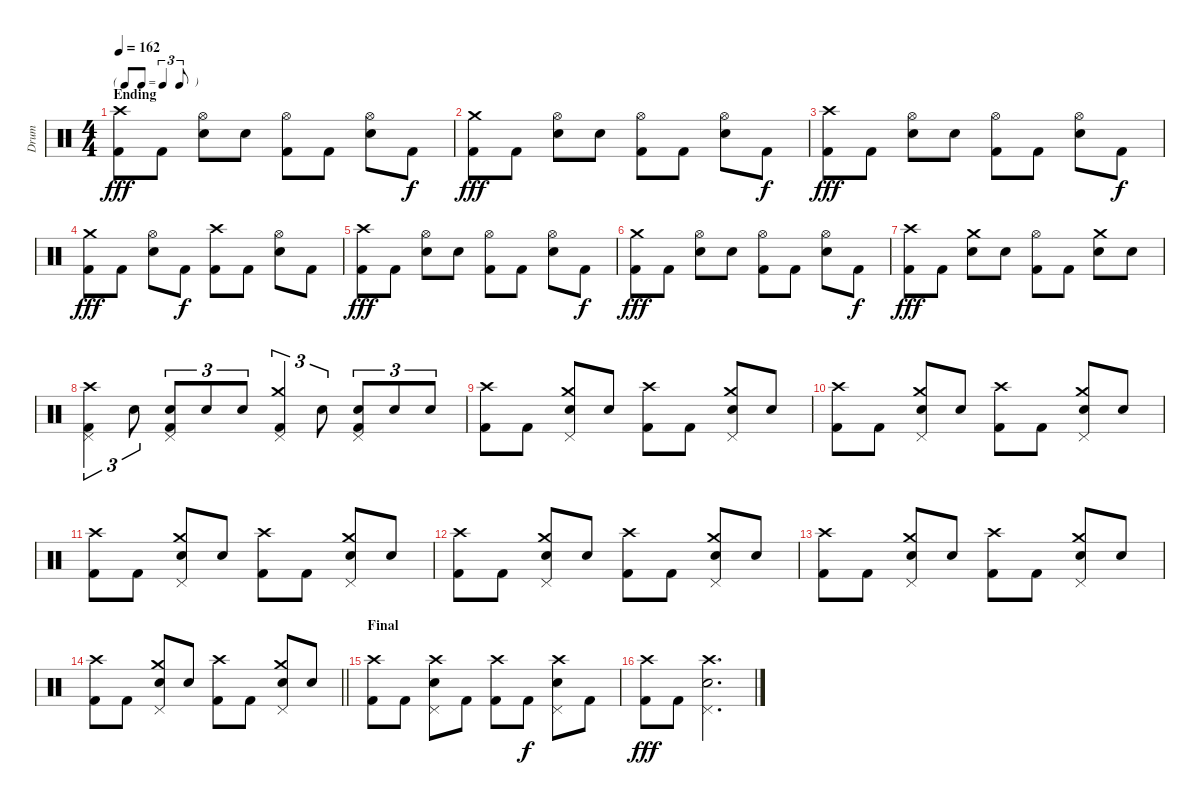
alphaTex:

\track ("Drum" "Drum") {instrument percussion}
\staff {score}
\articulation defaults
\ts (4 4)
\tf triplet8th
\section ("" "Ending")
\tempo 162
\clef neutral
\ks c
("Crash high (hit)" "Kick (hit) 2").8{dy fff} "Kick (hit) 2".8 ("Hi-Hat (open)" "Snare (hit) 2").8 "Snare (hit) 2".8 ("Hi-Hat (open)" "Kick (hit) 2").8 "Kick (hit) 2".8 ("Hi-Hat (open)" "Snare (hit) 2").8 "Kick (hit) 2".8{dy f} |
("Crash medium (hit)" "Kick (hit) 2").8{dy fff} "Kick (hit) 2".8 ("Hi-Hat (open)" "Snare (hit) 2").8 "Snare (hit) 2".8 ("Hi-Hat (open)" "Kick (hit) 2").8 "Kick (hit) 2".8 ("Hi-Hat (open)" "Snare (hit) 2").8 "Kick (hit) 2".8{dy f} |
("Crash high (hit)" "Kick (hit) 2").8{dy fff} "Kick (hit) 2".8 ("Hi-Hat (open)" "Snare (hit) 2").8 "Snare (hit) 2".8 ("Hi-Hat (open)" "Kick (hit) 2").8 "Kick (hit) 2".8 ("Hi-Hat (open)" "Snare (hit) 2").8 "Kick (hit) 2".8{dy f} |
("Crash medium (hit)" "Kick (hit) 2").8{dy fff} "Kick (hit) 2".8 ("Hi-Hat (open)" "Snare (hit) 2").8 "Kick (hit) 2".8{dy f} ("Crash high (hit)" "Kick (hit) 2").8 "Kick (hit) 2".8 ("Hi-Hat (open)" "Snare (hit) 2").8 "Kick (hit) 2".8 |
("Crash high (hit)" "Kick (hit) 2").8{dy fff} "Kick (hit) 2".8 ("Hi-Hat (open)" "Snare (hit) 2").8 "Snare (hit) 2".8 ("Hi-Hat (open)" "Kick (hit) 2").8 "Kick (hit) 2".8 ("Hi-Hat (open)" "Snare (hit) 2").8 "Kick (hit) 2".8{dy f} |
("Crash medium (hit)" "Kick (hit) 2").8{dy fff} "Kick (hit) 2".8 ("Hi-Hat (open)" "Snare (hit) 2").8 "Snare (hit) 2".8 ("Hi-Hat (open)" "Kick (hit) 2").8 "Kick (hit) 2".8 ("Hi-Hat (open)" "Snare (hit) 2").8 "Kick (hit) 2".8{dy f} |
("Crash high (hit)" "Kick (hit) 2").8{dy fff} "Kick (hit) 2".8 ("Crash medium (hit)" "Snare (hit) 2").8 "Snare (hit) 2".8 ("Hi-Hat (open)" "Kick (hit) 2").8 "Kick (hit) 2".8 ("Crash medium (hit)" "Snare (hit) 2").8 "Snare (hit) 2".8 |
("Crash high (hit)" "Pedal Hi-Hat (hit)" "Kick (hit) 2").4{tu (3 2)} "Snare (hit) 2".8{tu (3 2)} ("Snare (hit) 2" "Pedal Hi-Hat (hit)" "Kick (hit) 2").8{tu (3 2)} "Snare (hit) 2".8{tu (3 2)} "Snare (hit) 2".8{tu (3 2)} ("Crash medium (hit)" "Pedal Hi-Hat (hit)" "Kick (hit) 2").4{tu (3 2)} "Snare (hit) 2".8{tu (3 2)} ("Snare (hit) 2" "Pedal Hi-Hat (hit)" "Kick (hit) 2").8{tu (3 2)} "Snare (hit) 2".8{tu (3 2)} "Snare (hit) 2".8{tu (3 2)} |
("Crash high (hit)" "Kick (hit) 2").8 "Kick (hit) 2".8 ("Crash medium (hit)" "Snare (hit) 2" "Pedal Hi-Hat (hit)").8 "Snare (hit) 2".8 ("Crash high (hit)" "Kick (hit) 2").8 "Kick (hit) 2".8 ("Crash medium (hit)" "Snare (hit) 2" "Pedal Hi-Hat (hit)").8 "Snare (hit) 2".8 |
("Crash high (hit)" "Kick (hit) 2").8 "Kick (hit) 2".8 ("Crash medium (hit)" "Snare (hit) 2" "Pedal Hi-Hat (hit)").8 "Snare (hit) 2".8 ("Crash high (hit)" "Kick (hit) 2").8 "Kick (hit) 2".8 ("Crash medium (hit)" "Snare (hit) 2" "Pedal Hi-Hat (hit)").8 "Snare (hit) 2".8 |
("Crash high (hit)" "Kick (hit) 2").8 "Kick (hit) 2".8 ("Crash medium (hit)" "Snare (hit) 2" "Pedal Hi-Hat (hit)").8 "Snare (hit) 2".8 ("Crash high (hit)" "Kick (hit) 2").8 "Kick (hit) 2".8 ("Crash medium (hit)" "Snare (hit) 2" "Pedal Hi-Hat (hit)").8 "Snare (hit) 2".8 |
("Crash high (hit)" "Kick (hit) 2").8 "Kick (hit) 2".8 ("Crash medium (hit)" "Snare (hit) 2" "Pedal Hi-Hat (hit)").8 "Snare (hit) 2".8 ("Crash high (hit)" "Kick (hit) 2").8 "Kick (hit) 2".8 ("Crash medium (hit)" "Snare (hit) 2" "Pedal Hi-Hat (hit)").8 "Snare (hit) 2".8 |
("Crash high (hit)" "Kick (hit) 2").8 "Kick (hit) 2".8 ("Crash medium (hit)" "Snare (hit) 2" "Pedal Hi-Hat (hit)").8 "Snare (hit) 2".8 ("Crash high (hit)" "Kick (hit) 2").8 "Kick (hit) 2".8 ("Crash medium (hit)" "Snare (hit) 2" "Pedal Hi-Hat (hit)").8 "Snare (hit) 2".8 |
\barLineRight lightlight
("Crash high (hit)" "Kick (hit) 2").8 "Kick (hit) 2".8 ("Crash medium (hit)" "Snare (hit) 2" "Pedal Hi-Hat (hit)").8 "Snare (hit) 2".8 ("Crash high (hit)" "Kick (hit) 2").8 "Kick (hit) 2".8 ("Crash medium (hit)" "Snare (hit) 2" "Pedal Hi-Hat (hit)").8 "Snare (hit) 2".8 |
\section ("" "Final")
("Crash high (hit)" "Kick (hit) 2").8 "Kick (hit) 2".8 ("Crash high (hit)" "Snare (hit) 2" "Pedal Hi-Hat (hit)").8 "Kick (hit) 2".8 ("Crash high (hit)" "Kick (hit) 2").8 "Kick (hit) 2".8{dy f} ("Crash high (hit)" "Snare (hit) 2" "Pedal Hi-Hat (hit)").8 "Kick (hit) 2".8 |
("Crash high (hit)" "Kick (hit) 2").8{dy fff} "Kick (hit) 2".8 ("Crash high (hit)" "Snare (hit) 2" "Pedal Hi-Hat (hit)").2{d}
